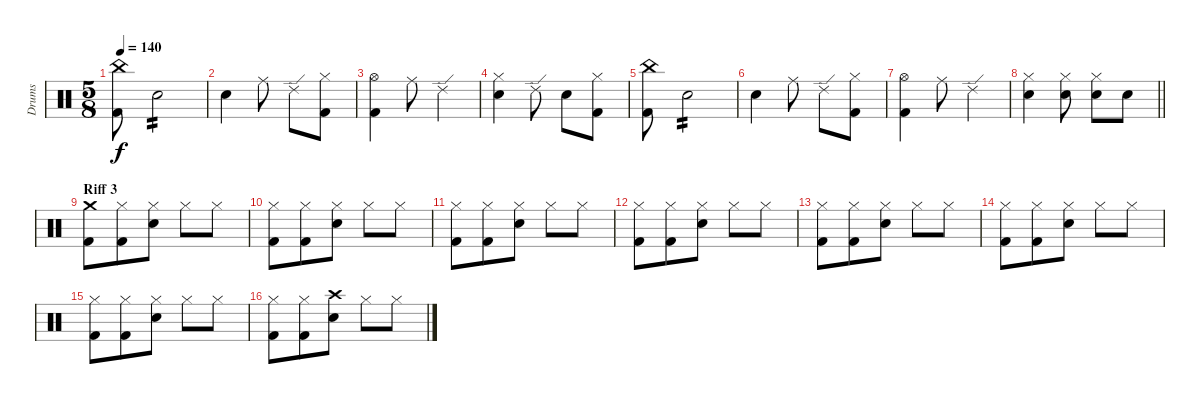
\track ("Drums" "Drums") {instrument percussion}
\staff {score}
\articulation defaults
\ts (5 8)
\tempo 140
\clef neutral
\ks c
("China (hit)" "Kick (hit) 2").8{dy f} "Electric Snare (hit)".2{tp 2} |
"Electric Snare (hit)".4 "Ride (middle)".8 "Ride (edge) 2".8 ("Hi-Hat (closed)" "Kick (hit) 2").8 |
("Hi-Hat (open)" "Kick (hit) 2").4 "Ride (middle)".8 "Ride (edge) 2".4 |
("Hi-Hat (closed)" "Electric Snare (hit)").4 "Ride (edge) 2".8 "Electric Snare (hit)".8 ("Hi-Hat (closed)" "Kick (hit) 2").8 |
("China (hit)" "Kick (hit) 2").8 "Electric Snare (hit)".2{tp 2} |
"Electric Snare (hit)".4 "Ride (middle)".8 "Ride (edge) 2".8 ("Hi-Hat (closed)" "Kick (hit) 2").8 |
("Hi-Hat (open)" "Kick (hit) 2").4 "Ride (middle)".8 "Ride (edge) 2".4 |
\barLineRight lightlight
("Hi-Hat (closed)" "Electric Snare (hit)").4 ("Hi-Hat (closed)" "Electric Snare (hit)").8 ("Hi-Hat (closed)" "Electric Snare (hit)").8 "Electric Snare (hit)".8 |
\section ("" "Riff 3")
("Crash medium (hit)" "Kick (hit) 2").8 ("Hi-Hat (closed)" "Kick (hit) 2").8 ("Hi-Hat (closed)" "Electric Snare (hit)").8 "Hi-Hat (closed)".8 "Hi-Hat (closed)".8 |
("Hi-Hat (closed)" "Kick (hit) 2").8 ("Hi-Hat (closed)" "Kick (hit) 2").8 ("Hi-Hat (closed)" "Electric Snare (hit)").8 "Hi-Hat (closed)".8 "Hi-Hat (closed)".8 |
("Hi-Hat (closed)" "Kick (hit) 2").8 ("Hi-Hat (closed)" "Kick (hit) 2").8 ("Hi-Hat (closed)" "Electric Snare (hit)").8 "Hi-Hat (closed)".8 "Hi-Hat (closed)".8 |
("Hi-Hat (closed)" "Kick (hit) 2").8 ("Hi-Hat (closed)" "Kick (hit) 2").8 ("Hi-Hat (closed)" "Electric Snare (hit)").8 "Hi-Hat (closed)".8 "Hi-Hat (closed)".8 |
("Hi-Hat (closed)" "Kick (hit) 2").8 ("Hi-Hat (closed)" "Kick (hit) 2").8 ("Hi-Hat (closed)" "Electric Snare (hit)").8 "Hi-Hat (closed)".8 "Hi-Hat (closed)".8 |
("Hi-Hat (closed)" "Kick (hit) 2").8 ("Hi-Hat (closed)" "Kick (hit) 2").8 ("Hi-Hat (closed)" "Electric Snare (hit)").8 "Hi-Hat (closed)".8 "Hi-Hat (closed)".8 |
("Hi-Hat (closed)" "Kick (hit) 2").8 ("Hi-Hat (closed)" "Kick (hit) 2").8 ("Hi-Hat (closed)" "Electric Snare (hit)").8 "Hi-Hat (closed)".8 "Hi-Hat (closed)".8 |
("Hi-Hat (closed)" "Kick (hit) 2").8 ("Hi-Hat (closed)" "Kick (hit) 2").8 ("Crash high (hit)" "Electric Snare (hit)").8 "Hi-Hat (closed)".8 "Hi-Hat (closed)".8
